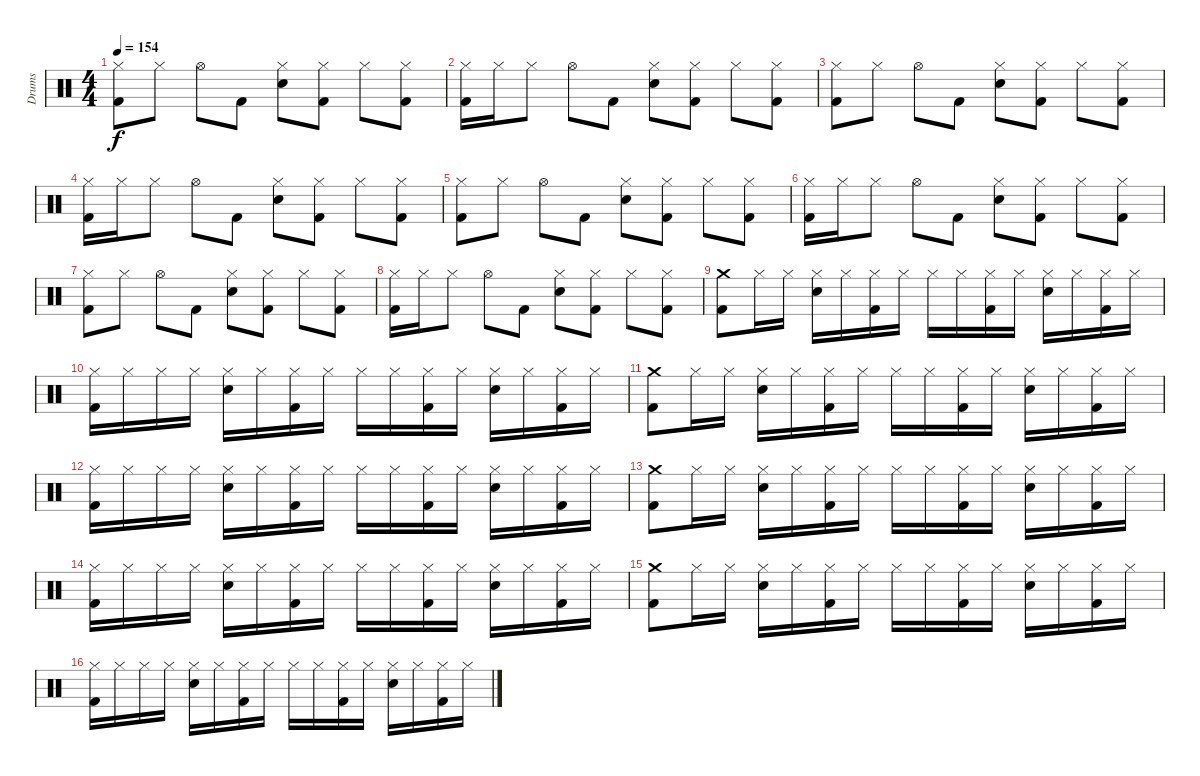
\track ("Drums" "Drums") {instrument percussion}
\staff {score}
\articulation defaults
\ts (4 4)
\tempo 154
\clef neutral
\ks c
("Hi-Hat (closed)" "Kick (hit) 2").8{dy f} "Hi-Hat (closed)".8 "Hi-Hat (open)".8 "Kick (hit) 2".8 ("Hi-Hat (closed)" "Electric Snare (hit)").8 ("Hi-Hat (closed)" "Kick (hit) 2").8 "Hi-Hat (closed)".8 ("Hi-Hat (closed)" "Kick (hit) 2").8 |
("Hi-Hat (closed)" "Kick (hit) 2").16 "Hi-Hat (closed)".16 "Hi-Hat (closed)".8 "Hi-Hat (open)".8 "Kick (hit) 2".8 ("Hi-Hat (closed)" "Electric Snare (hit)").8 ("Hi-Hat (closed)" "Kick (hit) 2").8 "Hi-Hat (closed)".8 ("Hi-Hat (closed)" "Kick (hit) 2").8 |
("Hi-Hat (closed)" "Kick (hit) 2").8 "Hi-Hat (closed)".8 "Hi-Hat (open)".8 "Kick (hit) 2".8 ("Hi-Hat (closed)" "Electric Snare (hit)").8 ("Hi-Hat (closed)" "Kick (hit) 2").8 "Hi-Hat (closed)".8 ("Hi-Hat (closed)" "Kick (hit) 2").8 |
("Hi-Hat (closed)" "Kick (hit) 2").16 "Hi-Hat (closed)".16 "Hi-Hat (closed)".8 "Hi-Hat (open)".8 "Kick (hit) 2".8 ("Hi-Hat (closed)" "Electric Snare (hit)").8 ("Hi-Hat (closed)" "Kick (hit) 2").8 "Hi-Hat (closed)".8 ("Hi-Hat (closed)" "Kick (hit) 2").8 |
("Hi-Hat (closed)" "Kick (hit) 2").8 "Hi-Hat (closed)".8 "Hi-Hat (open)".8 "Kick (hit) 2".8 ("Hi-Hat (closed)" "Electric Snare (hit)").8 ("Hi-Hat (closed)" "Kick (hit) 2").8 "Hi-Hat (closed)".8 ("Hi-Hat (closed)" "Kick (hit) 2").8 |
("Hi-Hat (closed)" "Kick (hit) 2").16 "Hi-Hat (closed)".16 "Hi-Hat (closed)".8 "Hi-Hat (open)".8 "Kick (hit) 2".8 ("Hi-Hat (closed)" "Electric Snare (hit)").8 ("Hi-Hat (closed)" "Kick (hit) 2").8 "Hi-Hat (closed)".8 ("Hi-Hat (closed)" "Kick (hit) 2").8 |
("Hi-Hat (closed)" "Kick (hit) 2").8 "Hi-Hat (closed)".8 "Hi-Hat (open)".8 "Kick (hit) 2".8 ("Hi-Hat (closed)" "Electric Snare (hit)").8 ("Hi-Hat (closed)" "Kick (hit) 2").8 "Hi-Hat (closed)".8 ("Hi-Hat (closed)" "Kick (hit) 2").8 |
("Hi-Hat (closed)" "Kick (hit) 2").16 "Hi-Hat (closed)".16 "Hi-Hat (closed)".8 "Hi-Hat (open)".8 "Kick (hit) 2".8 ("Hi-Hat (closed)" "Electric Snare (hit)").8 ("Hi-Hat (closed)" "Kick (hit) 2").8 "Hi-Hat (closed)".8 ("Hi-Hat (closed)" "Kick (hit) 2").8 |
("Crash medium (hit)" "Kick (hit) 2").8 "Hi-Hat (closed)".16 "Hi-Hat (closed)".16 ("Electric Snare (hit)" "Hi-Hat (closed)").16 "Hi-Hat (closed)".16 ("Kick (hit) 2" "Hi-Hat (closed)").16 "Hi-Hat (closed)".16 "Hi-Hat (closed)".16 "Hi-Hat (closed)".16 ("Kick (hit) 2" "Hi-Hat (closed)").16 "Hi-Hat (closed)".16 ("Electric Snare (hit)" "Hi-Hat (closed)").16 "Hi-Hat (closed)".16 ("Kick (hit) 2" "Hi-Hat (closed)").16 "Hi-Hat (closed)".16 |
("Hi-Hat (closed)" "Kick (hit) 2").16 "Hi-Hat (closed)".16 "Hi-Hat (closed)".16 "Hi-Hat (closed)".16 ("Electric Snare (hit)" "Hi-Hat (closed)").16 "Hi-Hat (closed)".16 ("Kick (hit) 2" "Hi-Hat (closed)").16 "Hi-Hat (closed)".16 "Hi-Hat (closed)".16 "Hi-Hat (closed)".16 ("Kick (hit) 2" "Hi-Hat (closed)").16 "Hi-Hat (closed)".16 ("Electric Snare (hit)" "Hi-Hat (closed)").16 "Hi-Hat (closed)".16 ("Kick (hit) 2" "Hi-Hat (closed)").16 "Hi-Hat (closed)".16 |
("Crash medium (hit)" "Kick (hit) 2").8 "Hi-Hat (closed)".16 "Hi-Hat (closed)".16 ("Electric Snare (hit)" "Hi-Hat (closed)").16 "Hi-Hat (closed)".16 ("Kick (hit) 2" "Hi-Hat (closed)").16 "Hi-Hat (closed)".16 "Hi-Hat (closed)".16 "Hi-Hat (closed)".16 ("Kick (hit) 2" "Hi-Hat (closed)").16 "Hi-Hat (closed)".16 ("Electric Snare (hit)" "Hi-Hat (closed)").16 "Hi-Hat (closed)".16 ("Kick (hit) 2" "Hi-Hat (closed)").16 "Hi-Hat (closed)".16 |
("Hi-Hat (closed)" "Kick (hit) 2").16 "Hi-Hat (closed)".16 "Hi-Hat (closed)".16 "Hi-Hat (closed)".16 ("Electric Snare (hit)" "Hi-Hat (closed)").16 "Hi-Hat (closed)".16 ("Kick (hit) 2" "Hi-Hat (closed)").16 "Hi-Hat (closed)".16 "Hi-Hat (closed)".16 "Hi-Hat (closed)".16 ("Kick (hit) 2" "Hi-Hat (closed)").16 "Hi-Hat (closed)".16 ("Electric Snare (hit)" "Hi-Hat (closed)").16 "Hi-Hat (closed)".16 ("Kick (hit) 2" "Hi-Hat (closed)").16 "Hi-Hat (closed)".16 |
("Crash medium (hit)" "Kick (hit) 2").8 "Hi-Hat (closed)".16 "Hi-Hat (closed)".16 ("Electric Snare (hit)" "Hi-Hat (closed)").16 "Hi-Hat (closed)".16 ("Kick (hit) 2" "Hi-Hat (closed)").16 "Hi-Hat (closed)".16 "Hi-Hat (closed)".16 "Hi-Hat (closed)".16 ("Kick (hit) 2" "Hi-Hat (closed)").16 "Hi-Hat (closed)".16 ("Electric Snare (hit)" "Hi-Hat (closed)").16 "Hi-Hat (closed)".16 ("Kick (hit) 2" "Hi-Hat (closed)").16 "Hi-Hat (closed)".16 |
("Hi-Hat (closed)" "Kick (hit) 2").16 "Hi-Hat (closed)".16 "Hi-Hat (closed)".16 "Hi-Hat (closed)".16 ("Electric Snare (hit)" "Hi-Hat (closed)").16 "Hi-Hat (closed)".16 ("Kick (hit) 2" "Hi-Hat (closed)").16 "Hi-Hat (closed)".16 "Hi-Hat (closed)".16 "Hi-Hat (closed)".16 ("Kick (hit) 2" "Hi-Hat (closed)").16 "Hi-Hat (closed)".16 ("Electric Snare (hit)" "Hi-Hat (closed)").16 "Hi-Hat (closed)".16 ("Kick (hit) 2" "Hi-Hat (closed)").16 "Hi-Hat (closed)".16 |
("Crash medium (hit)" "Kick (hit) 2").8 "Hi-Hat (closed)".16 "Hi-Hat (closed)".16 ("Electric Snare (hit)" "Hi-Hat (closed)").16 "Hi-Hat (closed)".16 ("Kick (hit) 2" "Hi-Hat (closed)").16 "Hi-Hat (closed)".16 "Hi-Hat (closed)".16 "Hi-Hat (closed)".16 ("Kick (hit) 2" "Hi-Hat (closed)").16 "Hi-Hat (closed)".16 ("Electric Snare (hit)" "Hi-Hat (closed)").16 "Hi-Hat (closed)".16 ("Kick (hit) 2" "Hi-Hat (closed)").16 "Hi-Hat (closed)".16 |
("Hi-Hat (closed)" "Kick (hit) 2").16 "Hi-Hat (closed)".16 "Hi-Hat (closed)".16 "Hi-Hat (closed)".16 ("Electric Snare (hit)" "Hi-Hat (closed)").16 "Hi-Hat (closed)".16 ("Kick (hit) 2" "Hi-Hat (closed)").16 "Hi-Hat (closed)".16 "Hi-Hat (closed)".16 "Hi-Hat (closed)".16 ("Kick (hit) 2" "Hi-Hat (closed)").16 "Hi-Hat (closed)".16 ("Electric Snare (hit)" "Hi-Hat (closed)").16 "Hi-Hat (closed)".16 ("Kick (hit) 2" "Hi-Hat (closed)").16 "Hi-Hat (closed)".16
